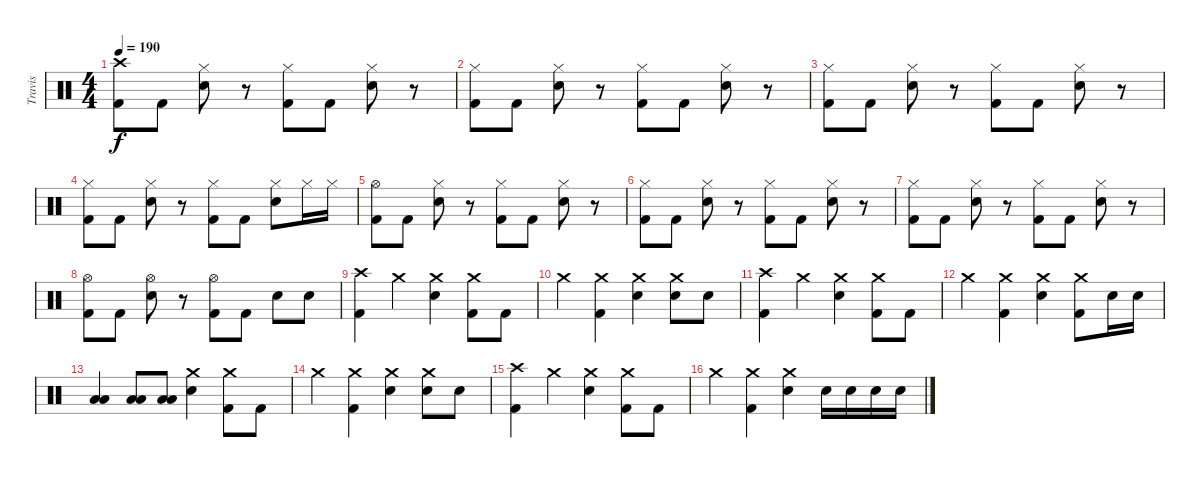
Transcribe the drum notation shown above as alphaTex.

\track ("Travis" "Travis") {instrument percussion}
\staff {score}
\articulation defaults
\ts (4 4)
\tempo 190
\clef neutral
\ks c
("Crash high (hit)" "Kick (hit) 2").8{dy f} "Kick (hit) 2".8 ("Hi-Hat (closed)" "Electric Snare (hit)").8 r.8 ("Hi-Hat (closed)" "Kick (hit) 2").8 "Kick (hit) 2".8 ("Hi-Hat (closed)" "Electric Snare (hit)").8 r.8 |
("Hi-Hat (closed)" "Kick (hit) 2").8 "Kick (hit) 2".8 ("Hi-Hat (closed)" "Electric Snare (hit)").8 r.8 ("Hi-Hat (closed)" "Kick (hit) 2").8 "Kick (hit) 2".8 ("Hi-Hat (closed)" "Electric Snare (hit)").8 r.8 |
("Hi-Hat (closed)" "Kick (hit) 2").8 "Kick (hit) 2".8 ("Hi-Hat (closed)" "Electric Snare (hit)").8 r.8 ("Hi-Hat (closed)" "Kick (hit) 2").8 "Kick (hit) 2".8 ("Hi-Hat (closed)" "Electric Snare (hit)").8 r.8 |
("Hi-Hat (closed)" "Kick (hit) 2").8 "Kick (hit) 2".8 ("Hi-Hat (closed)" "Electric Snare (hit)").8 r.8 ("Hi-Hat (closed)" "Kick (hit) 2").8 "Kick (hit) 2".8 ("Hi-Hat (closed)" "Electric Snare (hit)").8 "Hi-Hat (closed)".16 "Hi-Hat (closed)".16 |
("Hi-Hat (open)" "Kick (hit) 2").8 "Kick (hit) 2".8 ("Hi-Hat (closed)" "Electric Snare (hit)").8 r.8 ("Hi-Hat (closed)" "Kick (hit) 2").8 "Kick (hit) 2".8 ("Hi-Hat (closed)" "Electric Snare (hit)").8 r.8 |
("Hi-Hat (closed)" "Kick (hit) 2").8 "Kick (hit) 2".8 ("Hi-Hat (closed)" "Electric Snare (hit)").8 r.8 ("Hi-Hat (closed)" "Kick (hit) 2").8 "Kick (hit) 2".8 ("Hi-Hat (closed)" "Electric Snare (hit)").8 r.8 |
("Hi-Hat (closed)" "Kick (hit) 2").8 "Kick (hit) 2".8 ("Hi-Hat (closed)" "Electric Snare (hit)").8 r.8 ("Hi-Hat (closed)" "Kick (hit) 2").8 "Kick (hit) 2".8 ("Hi-Hat (closed)" "Electric Snare (hit)").8 r.8 |
("Hi-Hat (open)" "Kick (hit) 2").8 "Kick (hit) 2".8 ("Hi-Hat (open)" "Electric Snare (hit)").8 r.8 ("Hi-Hat (open)" "Kick (hit) 2").8 "Kick (hit) 2".8 "Electric Snare (hit)".8 "Electric Snare (hit)".8 |
("Crash high (hit)" "Kick (hit) 2").4 "Crash medium (hit)".4 ("Crash medium (hit)" "Electric Snare (hit)").4 ("Crash medium (hit)" "Kick (hit) 2").8 "Kick (hit) 2".8 |
"Crash medium (hit)".4 ("Crash medium (hit)" "Kick (hit) 2").4 ("Crash medium (hit)" "Electric Snare (hit)").4 ("Crash medium (hit)" "Electric Snare (hit)").8 "Electric Snare (hit)".8 |
("Crash high (hit)" "Kick (hit) 2").4 "Crash medium (hit)".4 ("Crash medium (hit)" "Electric Snare (hit)").4 ("Crash medium (hit)" "Kick (hit) 2").8 "Kick (hit) 2".8 |
"Crash medium (hit)".4 ("Crash medium (hit)" "Kick (hit) 2").4 ("Crash medium (hit)" "Electric Snare (hit)").4 ("Crash medium (hit)" "Kick (hit) 2").8 "Electric Snare (hit)".16 "Electric Snare (hit)".16 |
("Low Tom (hit)" "Low Tom (hit)").4 ("Low Tom (hit)" "Low Tom (hit)").8 ("Low Tom (hit)" "Low Tom (hit)").8 ("Crash medium (hit)" "Electric Snare (hit)").4 ("Crash medium (hit)" "Kick (hit) 2").8 "Kick (hit) 2".8 |
"Crash medium (hit)".4 ("Crash medium (hit)" "Kick (hit) 2").4 ("Crash medium (hit)" "Electric Snare (hit)").4 ("Crash medium (hit)" "Electric Snare (hit)").8 "Electric Snare (hit)".8 |
("Crash high (hit)" "Kick (hit) 2").4 "Crash medium (hit)".4 ("Crash medium (hit)" "Electric Snare (hit)").4 ("Crash medium (hit)" "Kick (hit) 2").8 "Kick (hit) 2".8 |
"Crash medium (hit)".4 ("Crash medium (hit)" "Kick (hit) 2").4 ("Crash medium (hit)" "Electric Snare (hit)").4 "Electric Snare (hit)".16 "Electric Snare (hit)".16 "Electric Snare (hit)".16 "Electric Snare (hit)".16
